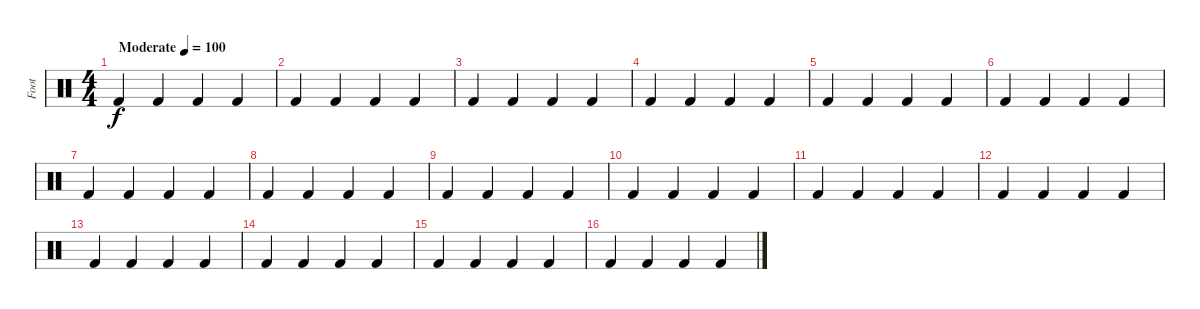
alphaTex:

\track ("Foot" "Foot") {instrument percussion}
\staff {score}
\articulation defaults
\ts (4 4)
\tempo (100 "Moderate")
\clef neutral
\ks c "Kick (hit) 2".4{dy f} "Kick (hit) 2".4 "Kick (hit) 2".4 "Kick (hit) 2".4
|
"Kick (hit) 2".4 "Kick (hit) 2".4 "Kick (hit) 2".4 "Kick (hit) 2".4 |
"Kick (hit) 2".4 "Kick (hit) 2".4 "Kick (hit) 2".4 "Kick (hit) 2".4 |
"Kick (hit) 2".4 "Kick (hit) 2".4 "Kick (hit) 2".4 "Kick (hit) 2".4 |
"Kick (hit) 2".4 "Kick (hit) 2".4 "Kick (hit) 2".4 "Kick (hit) 2".4 |
"Kick (hit) 2".4 "Kick (hit) 2".4 "Kick (hit) 2".4 "Kick (hit) 2".4 |
"Kick (hit) 2".4 "Kick (hit) 2".4 "Kick (hit) 2".4 "Kick (hit) 2".4 |
"Kick (hit) 2".4 "Kick (hit) 2".4 "Kick (hit) 2".4 "Kick (hit) 2".4 |
"Kick (hit) 2".4 "Kick (hit) 2".4 "Kick (hit) 2".4 "Kick (hit) 2".4 |
"Kick (hit) 2".4 "Kick (hit) 2".4 "Kick (hit) 2".4 "Kick (hit) 2".4 |
"Kick (hit) 2".4 "Kick (hit) 2".4 "Kick (hit) 2".4 "Kick (hit) 2".4 |
"Kick (hit) 2".4 "Kick (hit) 2".4 "Kick (hit) 2".4 "Kick (hit) 2".4 |
"Kick (hit) 2".4 "Kick (hit) 2".4 "Kick (hit) 2".4 "Kick (hit) 2".4 |
"Kick (hit) 2".4 "Kick (hit) 2".4 "Kick (hit) 2".4 "Kick (hit) 2".4 |
"Kick (hit) 2".4 "Kick (hit) 2".4 "Kick (hit) 2".4 "Kick (hit) 2".4 |
"Kick (hit) 2".4 "Kick (hit) 2".4 "Kick (hit) 2".4 "Kick (hit) 2".4
